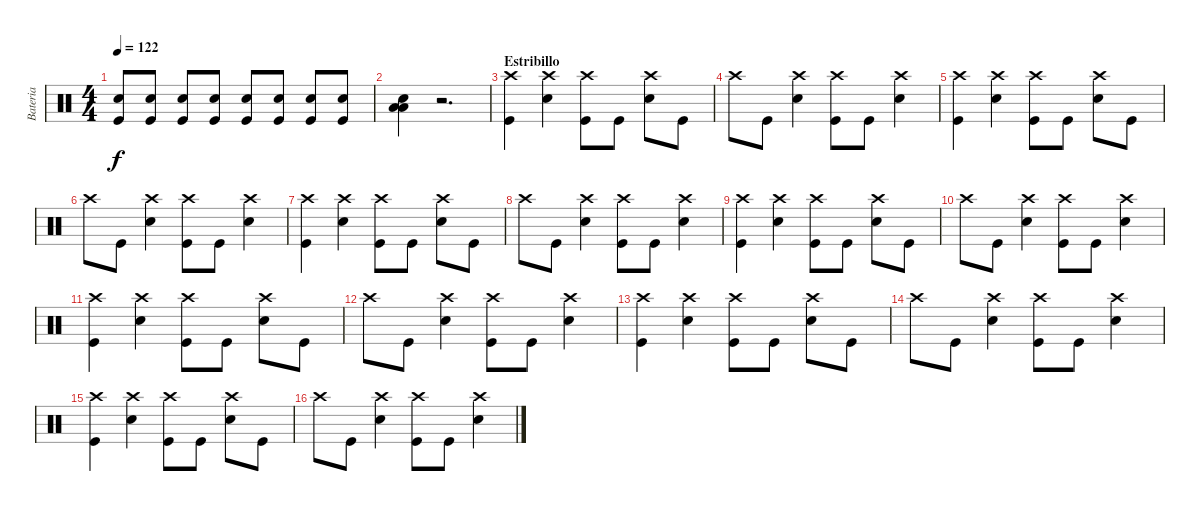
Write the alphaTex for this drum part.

\track ("Bateria" "Bateria") {instrument percussion}
\staff {score}
\articulation defaults
\ts (4 4)
\tempo 122
\clef neutral
\ks c
("Snare (hit) 2" "Kick (hit)").8{dy f} ("Snare (hit) 2" "Kick (hit)").8 ("Snare (hit) 2" "Kick (hit)").8 ("Snare (hit) 2" "Kick (hit)").8 ("Snare (hit) 2" "Kick (hit)").8 ("Snare (hit) 2" "Kick (hit)").8 ("Snare (hit) 2" "Kick (hit)").8 ("Snare (hit) 2" "Kick (hit)").8 |
("Snare (hit) 2" "Low Floor Tom (hit)" "Low Floor Tom (hit)").4 r.2{d} |
\section ("" "Estribillo")
("Crash high (hit)" "Kick (hit)").4 ("Crash high (hit)" "Snare (hit) 2").4 ("Crash high (hit)" "Kick (hit)").8 "Kick (hit)".8 ("Crash high (hit)" "Snare (hit) 2").8 "Kick (hit)".8 |
"Crash high (hit)".8 "Kick (hit)".8 ("Crash high (hit)" "Snare (hit) 2").4 ("Crash high (hit)" "Kick (hit)").8 "Kick (hit)".8 ("Crash high (hit)" "Snare (hit) 2").4 |
("Crash high (hit)" "Kick (hit)").4 ("Crash high (hit)" "Snare (hit) 2").4 ("Crash high (hit)" "Kick (hit)").8 "Kick (hit)".8 ("Crash high (hit)" "Snare (hit) 2").8 "Kick (hit)".8 |
"Crash high (hit)".8 "Kick (hit)".8 ("Crash high (hit)" "Snare (hit) 2").4 ("Crash high (hit)" "Kick (hit)").8 "Kick (hit)".8 ("Crash high (hit)" "Snare (hit) 2").4 |
("Crash high (hit)" "Kick (hit)").4 ("Crash high (hit)" "Snare (hit) 2").4 ("Crash high (hit)" "Kick (hit)").8 "Kick (hit)".8 ("Crash high (hit)" "Snare (hit) 2").8 "Kick (hit)".8 |
"Crash high (hit)".8 "Kick (hit)".8 ("Crash high (hit)" "Snare (hit) 2").4 ("Crash high (hit)" "Kick (hit)").8 "Kick (hit)".8 ("Crash high (hit)" "Snare (hit) 2").4 |
("Crash high (hit)" "Kick (hit)").4 ("Crash high (hit)" "Snare (hit) 2").4 ("Crash high (hit)" "Kick (hit)").8 "Kick (hit)".8 ("Crash high (hit)" "Snare (hit) 2").8 "Kick (hit)".8 |
"Crash high (hit)".8 "Kick (hit)".8 ("Crash high (hit)" "Snare (hit) 2").4 ("Crash high (hit)" "Kick (hit)").8 "Kick (hit)".8 ("Crash high (hit)" "Snare (hit) 2").4 |
("Crash high (hit)" "Kick (hit)").4 ("Crash high (hit)" "Snare (hit) 2").4 ("Crash high (hit)" "Kick (hit)").8 "Kick (hit)".8 ("Crash high (hit)" "Snare (hit) 2").8 "Kick (hit)".8 |
"Crash high (hit)".8 "Kick (hit)".8 ("Crash high (hit)" "Snare (hit) 2").4 ("Crash high (hit)" "Kick (hit)").8 "Kick (hit)".8 ("Crash high (hit)" "Snare (hit) 2").4 |
("Crash high (hit)" "Kick (hit)").4 ("Crash high (hit)" "Snare (hit) 2").4 ("Crash high (hit)" "Kick (hit)").8 "Kick (hit)".8 ("Crash high (hit)" "Snare (hit) 2").8 "Kick (hit)".8 |
"Crash high (hit)".8 "Kick (hit)".8 ("Crash high (hit)" "Snare (hit) 2").4 ("Crash high (hit)" "Kick (hit)").8 "Kick (hit)".8 ("Crash high (hit)" "Snare (hit) 2").4 |
("Crash high (hit)" "Kick (hit)").4 ("Crash high (hit)" "Snare (hit) 2").4 ("Crash high (hit)" "Kick (hit)").8 "Kick (hit)".8 ("Crash high (hit)" "Snare (hit) 2").8 "Kick (hit)".8 |
"Crash high (hit)".8 "Kick (hit)".8 ("Crash high (hit)" "Snare (hit) 2").4 ("Crash high (hit)" "Kick (hit)").8 "Kick (hit)".8 ("Crash high (hit)" "Snare (hit) 2").4
